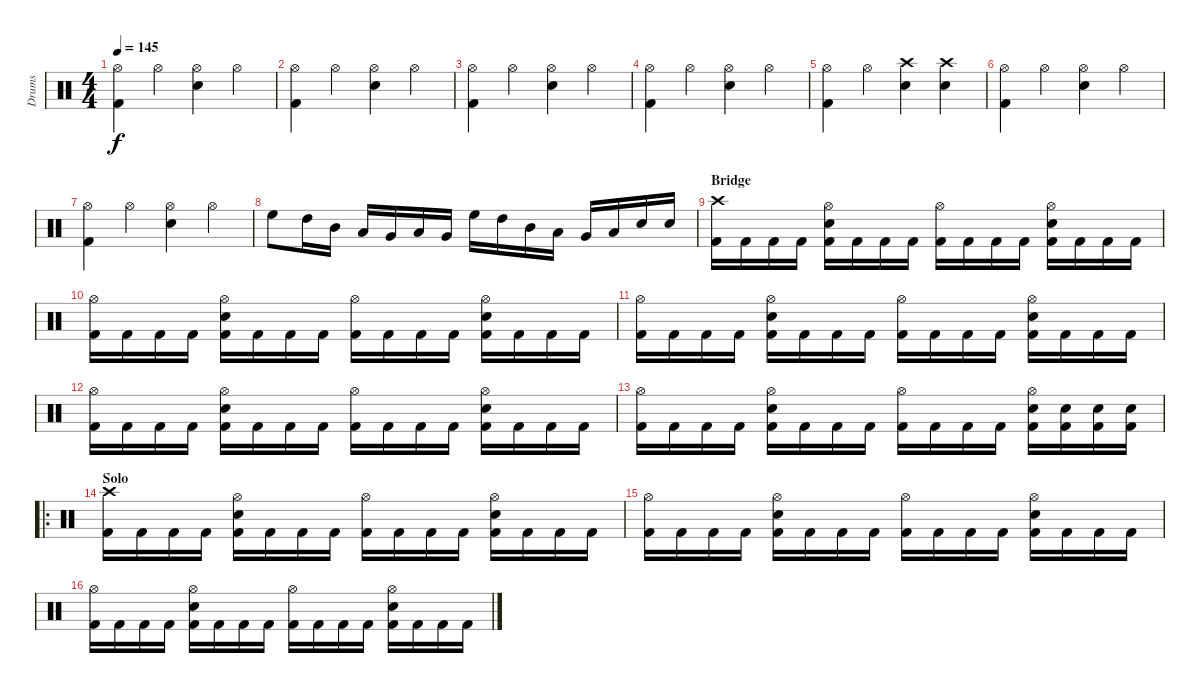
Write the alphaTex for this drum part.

\track ("Drums" "Drums") {instrument percussion}
\staff {score}
\articulation defaults
\ts (4 4)
\tempo 145
\clef neutral
\ks c
("Hi-Hat (open)" "Kick (hit) 2").4{dy f} "Hi-Hat (open)".4 ("Hi-Hat (open)" "Electric Snare (hit)").4 "Hi-Hat (open)".4 |
("Hi-Hat (open)" "Kick (hit) 2").4 "Hi-Hat (open)".4 ("Hi-Hat (open)" "Electric Snare (hit)").4 "Hi-Hat (open)".4 |
("Hi-Hat (open)" "Kick (hit) 2").4 "Hi-Hat (open)".4 ("Hi-Hat (open)" "Electric Snare (hit)").4 "Hi-Hat (open)".4 |
("Hi-Hat (open)" "Kick (hit) 2").4 "Hi-Hat (open)".4 ("Hi-Hat (open)" "Electric Snare (hit)").4 "Hi-Hat (open)".4 |
("Hi-Hat (open)" "Kick (hit) 2").4 "Hi-Hat (open)".4 ("Crash high (hit)" "Electric Snare (hit)").4 ("Crash high (hit)" "Electric Snare (hit)").4 |
("Hi-Hat (open)" "Kick (hit) 2").4 "Hi-Hat (open)".4 ("Hi-Hat (open)" "Electric Snare (hit)").4 "Hi-Hat (open)".4 |
("Hi-Hat (open)" "Kick (hit) 2").4 "Hi-Hat (open)".4 ("Hi-Hat (open)" "Electric Snare (hit)").4 "Hi-Hat (open)".4 |
"High Floor Tom (hit)".8 "High Tom (hit)".16 "Mid Tom (hit)".16 "Low Tom (hit)".16 "Very Low Tom (hit)".16 "Low Floor Tom (hit)".16 "Very Low Tom (hit)".16 "High Floor Tom (hit)".16 "High Tom (hit)".16 "Mid Tom (hit)".16 "Low Tom (hit)".16 "Very Low Tom (hit)".16 "Low Floor Tom (hit)".16 "Electric Snare (hit)".16 "Electric Snare (hit)".16 |
\section ("" "Bridge")
("Crash high (hit)" "Kick (hit) 2").16 "Kick (hit) 2".16 "Kick (hit) 2".16 "Kick (hit) 2".16 ("Hi-Hat (open)" "Electric Snare (hit)" "Kick (hit) 2").16 "Kick (hit) 2".16 "Kick (hit) 2".16 "Kick (hit) 2".16 ("Hi-Hat (open)" "Kick (hit) 2").16 "Kick (hit) 2".16 "Kick (hit) 2".16 "Kick (hit) 2".16 ("Hi-Hat (open)" "Electric Snare (hit)" "Kick (hit) 2").16 "Kick (hit) 2".16 "Kick (hit) 2".16 "Kick (hit) 2".16 |
("Hi-Hat (open)" "Kick (hit) 2").16 "Kick (hit) 2".16 "Kick (hit) 2".16 "Kick (hit) 2".16 ("Hi-Hat (open)" "Electric Snare (hit)" "Kick (hit) 2").16 "Kick (hit) 2".16 "Kick (hit) 2".16 "Kick (hit) 2".16 ("Hi-Hat (open)" "Kick (hit) 2").16 "Kick (hit) 2".16 "Kick (hit) 2".16 "Kick (hit) 2".16 ("Hi-Hat (open)" "Electric Snare (hit)" "Kick (hit) 2").16 "Kick (hit) 2".16 "Kick (hit) 2".16 "Kick (hit) 2".16 |
("Hi-Hat (open)" "Kick (hit) 2").16 "Kick (hit) 2".16 "Kick (hit) 2".16 "Kick (hit) 2".16 ("Hi-Hat (open)" "Electric Snare (hit)" "Kick (hit) 2").16 "Kick (hit) 2".16 "Kick (hit) 2".16 "Kick (hit) 2".16 ("Hi-Hat (open)" "Kick (hit) 2").16 "Kick (hit) 2".16 "Kick (hit) 2".16 "Kick (hit) 2".16 ("Hi-Hat (open)" "Electric Snare (hit)" "Kick (hit) 2").16 "Kick (hit) 2".16 "Kick (hit) 2".16 "Kick (hit) 2".16 |
("Hi-Hat (open)" "Kick (hit) 2").16 "Kick (hit) 2".16 "Kick (hit) 2".16 "Kick (hit) 2".16 ("Hi-Hat (open)" "Electric Snare (hit)" "Kick (hit) 2").16 "Kick (hit) 2".16 "Kick (hit) 2".16 "Kick (hit) 2".16 ("Hi-Hat (open)" "Kick (hit) 2").16 "Kick (hit) 2".16 "Kick (hit) 2".16 "Kick (hit) 2".16 ("Hi-Hat (open)" "Electric Snare (hit)" "Kick (hit) 2").16 "Kick (hit) 2".16 "Kick (hit) 2".16 "Kick (hit) 2".16 |
("Hi-Hat (open)" "Kick (hit) 2").16 "Kick (hit) 2".16 "Kick (hit) 2".16 "Kick (hit) 2".16 ("Hi-Hat (open)" "Electric Snare (hit)" "Kick (hit) 2").16 "Kick (hit) 2".16 "Kick (hit) 2".16 "Kick (hit) 2".16 ("Hi-Hat (open)" "Kick (hit) 2").16 "Kick (hit) 2".16 "Kick (hit) 2".16 "Kick (hit) 2".16 ("Hi-Hat (open)" "Electric Snare (hit)" "Kick (hit) 2").16 ("Electric Snare (hit)" "Kick (hit) 2").16 ("Electric Snare (hit)" "Kick (hit) 2").16 ("Electric Snare (hit)" "Kick (hit) 2").16 |
\ro
\section ("" "Solo")
("Crash high (hit)" "Kick (hit) 2").16 "Kick (hit) 2".16 "Kick (hit) 2".16 "Kick (hit) 2".16 ("Hi-Hat (open)" "Electric Snare (hit)" "Kick (hit) 2").16 "Kick (hit) 2".16 "Kick (hit) 2".16 "Kick (hit) 2".16 ("Hi-Hat (open)" "Kick (hit) 2").16 "Kick (hit) 2".16 "Kick (hit) 2".16 "Kick (hit) 2".16 ("Hi-Hat (open)" "Electric Snare (hit)" "Kick (hit) 2").16 "Kick (hit) 2".16 "Kick (hit) 2".16 "Kick (hit) 2".16 |
("Hi-Hat (open)" "Kick (hit) 2").16 "Kick (hit) 2".16 "Kick (hit) 2".16 "Kick (hit) 2".16 ("Hi-Hat (open)" "Electric Snare (hit)" "Kick (hit) 2").16 "Kick (hit) 2".16 "Kick (hit) 2".16 "Kick (hit) 2".16 ("Hi-Hat (open)" "Kick (hit) 2").16 "Kick (hit) 2".16 "Kick (hit) 2".16 "Kick (hit) 2".16 ("Hi-Hat (open)" "Electric Snare (hit)" "Kick (hit) 2").16 "Kick (hit) 2".16 "Kick (hit) 2".16 "Kick (hit) 2".16 |
("Hi-Hat (open)" "Kick (hit) 2").16 "Kick (hit) 2".16 "Kick (hit) 2".16 "Kick (hit) 2".16 ("Hi-Hat (open)" "Electric Snare (hit)" "Kick (hit) 2").16 "Kick (hit) 2".16 "Kick (hit) 2".16 "Kick (hit) 2".16 ("Hi-Hat (open)" "Kick (hit) 2").16 "Kick (hit) 2".16 "Kick (hit) 2".16 "Kick (hit) 2".16 ("Hi-Hat (open)" "Electric Snare (hit)" "Kick (hit) 2").16 "Kick (hit) 2".16 "Kick (hit) 2".16 "Kick (hit) 2".16
